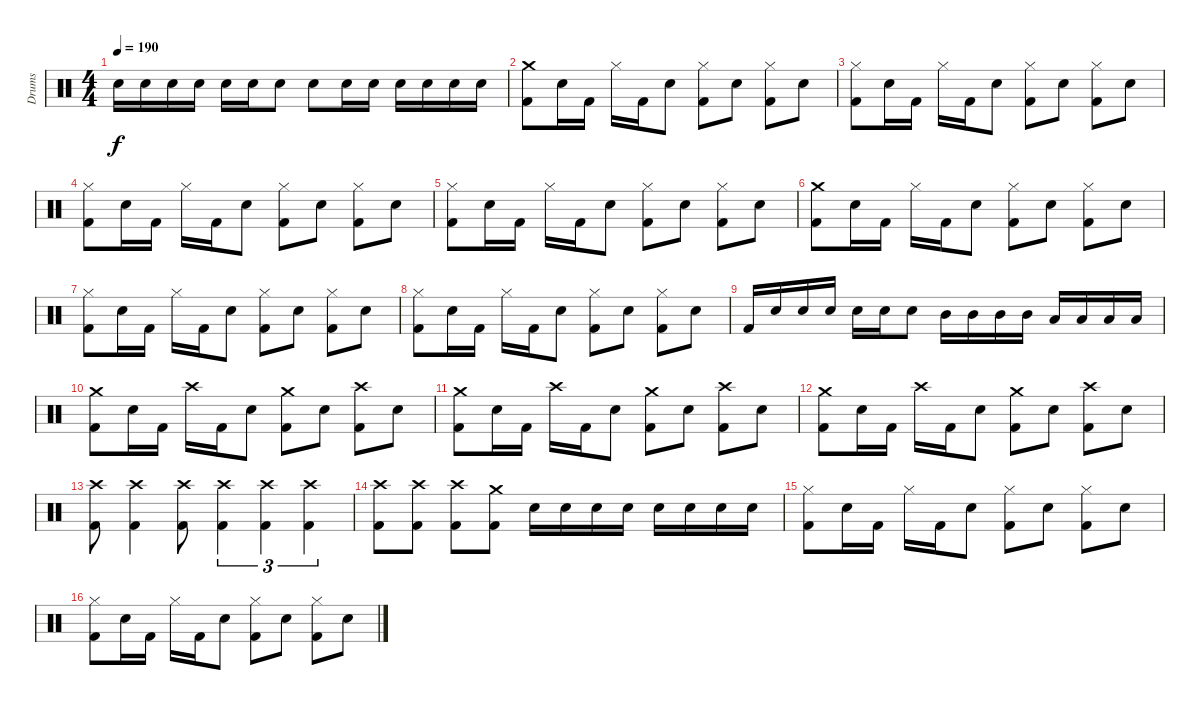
\track ("Drums" "Drums") {instrument percussion}
\staff {score}
\articulation defaults
\ts (4 4)
\tempo 190
\clef neutral
\ks c "Electric Snare (hit)".16{dy f} "Electric Snare (hit)".16 "Electric Snare (hit)".16 "Electric Snare (hit)".16 "Electric Snare (hit)".16 "Electric Snare (hit)".16 "Electric Snare (hit)".8 "Electric Snare (hit)".8 "Electric Snare (hit)".16 "Electric Snare (hit)".16 "Electric Snare (hit)".16 "Electric Snare (hit)".16 "Electric Snare (hit)".16 "Electric Snare (hit)".16
|
("Crash medium (hit)" "Kick (hit) 2").8 "Electric Snare (hit)".16 "Kick (hit) 2".16 "Hi-Hat (closed)".16 "Kick (hit) 2".16 "Electric Snare (hit)".8 ("Hi-Hat (closed)" "Kick (hit) 2").8 "Electric Snare (hit)".8 ("Hi-Hat (closed)" "Kick (hit) 2").8 "Electric Snare (hit)".8 |
("Hi-Hat (closed)" "Kick (hit) 2").8 "Electric Snare (hit)".16 "Kick (hit) 2".16 "Hi-Hat (closed)".16 "Kick (hit) 2".16 "Electric Snare (hit)".8 ("Hi-Hat (closed)" "Kick (hit) 2").8 "Electric Snare (hit)".8 ("Hi-Hat (closed)" "Kick (hit) 2").8 "Electric Snare (hit)".8 |
("Hi-Hat (closed)" "Kick (hit) 2").8 "Electric Snare (hit)".16 "Kick (hit) 2".16 "Hi-Hat (closed)".16 "Kick (hit) 2".16 "Electric Snare (hit)".8 ("Hi-Hat (closed)" "Kick (hit) 2").8 "Electric Snare (hit)".8 ("Hi-Hat (closed)" "Kick (hit) 2").8 "Electric Snare (hit)".8 |
("Hi-Hat (closed)" "Kick (hit) 2").8 "Electric Snare (hit)".16 "Kick (hit) 2".16 "Hi-Hat (closed)".16 "Kick (hit) 2".16 "Electric Snare (hit)".8 ("Hi-Hat (closed)" "Kick (hit) 2").8 "Electric Snare (hit)".8 ("Hi-Hat (closed)" "Kick (hit) 2").8 "Electric Snare (hit)".8 |
("Crash medium (hit)" "Kick (hit) 2").8 "Electric Snare (hit)".16 "Kick (hit) 2".16 "Hi-Hat (closed)".16 "Kick (hit) 2".16 "Electric Snare (hit)".8 ("Hi-Hat (closed)" "Kick (hit) 2").8 "Electric Snare (hit)".8 ("Hi-Hat (closed)" "Kick (hit) 2").8 "Electric Snare (hit)".8 |
("Hi-Hat (closed)" "Kick (hit) 2").8 "Electric Snare (hit)".16 "Kick (hit) 2".16 "Hi-Hat (closed)".16 "Kick (hit) 2".16 "Electric Snare (hit)".8 ("Hi-Hat (closed)" "Kick (hit) 2").8 "Electric Snare (hit)".8 ("Hi-Hat (closed)" "Kick (hit) 2").8 "Electric Snare (hit)".8 |
("Hi-Hat (closed)" "Kick (hit) 2").8 "Electric Snare (hit)".16 "Kick (hit) 2".16 "Hi-Hat (closed)".16 "Kick (hit) 2".16 "Electric Snare (hit)".8 ("Hi-Hat (closed)" "Kick (hit) 2").8 "Electric Snare (hit)".8 ("Hi-Hat (closed)" "Kick (hit) 2").8 "Electric Snare (hit)".8 |
"Kick (hit) 2".16 "Electric Snare (hit)".16 "Electric Snare (hit)".16 "Electric Snare (hit)".16 "Electric Snare (hit)".16 "Electric Snare (hit)".16 "Electric Snare (hit)".8 "Mid Tom (hit)".16 "Mid Tom (hit)".16 "Mid Tom (hit)".16 "Mid Tom (hit)".16 "Low Tom (hit)".16 "Low Tom (hit)".16 "Low Tom (hit)".16 "Low Tom (hit)".16 |
("Crash medium (hit)" "Kick (hit) 2").8 "Electric Snare (hit)".16 "Kick (hit) 2".16 "Crash high (hit)".16 "Kick (hit) 2".16 "Electric Snare (hit)".8 ("Crash medium (hit)" "Kick (hit) 2").8 "Electric Snare (hit)".8 ("Crash high (hit)" "Kick (hit) 2").8 "Electric Snare (hit)".8 |
("Crash medium (hit)" "Kick (hit) 2").8 "Electric Snare (hit)".16 "Kick (hit) 2".16 "Crash high (hit)".16 "Kick (hit) 2".16 "Electric Snare (hit)".8 ("Crash medium (hit)" "Kick (hit) 2").8 "Electric Snare (hit)".8 ("Crash high (hit)" "Kick (hit) 2").8 "Electric Snare (hit)".8 |
("Crash medium (hit)" "Kick (hit) 2").8 "Electric Snare (hit)".16 "Kick (hit) 2".16 "Crash high (hit)".16 "Kick (hit) 2".16 "Electric Snare (hit)".8 ("Crash medium (hit)" "Kick (hit) 2").8 "Electric Snare (hit)".8 ("Crash high (hit)" "Kick (hit) 2").8 "Electric Snare (hit)".8 |
("Crash high (hit)" "Kick (hit) 2").8 ("Crash high (hit)" "Kick (hit) 2").4 ("Crash high (hit)" "Kick (hit) 2").8 ("Crash high (hit)" "Kick (hit) 2").4{tu (3 2)} ("Crash high (hit)" "Kick (hit) 2").4{tu (3 2)} ("Crash high (hit)" "Kick (hit) 2").4{tu (3 2)} |
("Crash high (hit)" "Kick (hit) 2").8 ("Crash high (hit)" "Kick (hit) 2").8 ("Crash high (hit)" "Kick (hit) 2").8 ("Crash medium (hit)" "Kick (hit) 2").8 "Electric Snare (hit)".16 "Electric Snare (hit)".16 "Electric Snare (hit)".16 "Electric Snare (hit)".16 "Electric Snare (hit)".16 "Electric Snare (hit)".16 "Electric Snare (hit)".16 "Electric Snare (hit)".16 |
("Hi-Hat (closed)" "Kick (hit) 2").8 "Electric Snare (hit)".16 "Kick (hit) 2".16 "Hi-Hat (closed)".16 "Kick (hit) 2".16 "Electric Snare (hit)".8 ("Hi-Hat (closed)" "Kick (hit) 2").8 "Electric Snare (hit)".8 ("Hi-Hat (closed)" "Kick (hit) 2").8 "Electric Snare (hit)".8 |
("Hi-Hat (closed)" "Kick (hit) 2").8 "Electric Snare (hit)".16 "Kick (hit) 2".16 "Hi-Hat (closed)".16 "Kick (hit) 2".16 "Electric Snare (hit)".8 ("Hi-Hat (closed)" "Kick (hit) 2").8 "Electric Snare (hit)".8 ("Hi-Hat (closed)" "Kick (hit) 2").8 "Electric Snare (hit)".8
